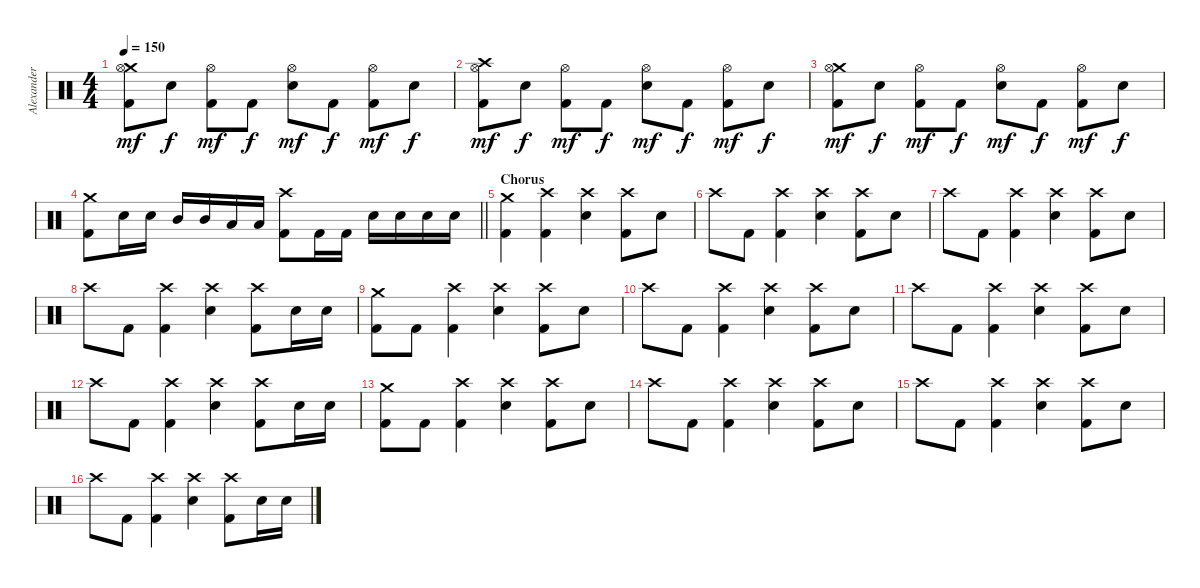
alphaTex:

\track ("Alexander Sveningsson" "Alexander ") {instrument percussion}
\staff {score}
\articulation defaults
\ts (4 4)
\tempo 150
\clef neutral
\ks c
("Crash medium (hit)" "Hi-Hat (open)" "Kick (hit) 2").8{dy mf} "Electric Snare (hit)".8{dy f} ("Hi-Hat (open)" "Kick (hit) 2").8{dy mf} "Kick (hit) 2".8{dy f} ("Hi-Hat (open)" "Electric Snare (hit)").8{dy mf} "Kick (hit) 2".8{dy f} ("Hi-Hat (open)" "Kick (hit) 2").8{dy mf} "Electric Snare (hit)".8{dy f} |
("Crash high (hit)" "Hi-Hat (open)" "Kick (hit) 2").8{dy mf} "Electric Snare (hit)".8{dy f} ("Hi-Hat (open)" "Kick (hit) 2").8{dy mf} "Kick (hit) 2".8{dy f} ("Hi-Hat (open)" "Electric Snare (hit)").8{dy mf} "Kick (hit) 2".8{dy f} ("Hi-Hat (open)" "Kick (hit) 2").8{dy mf} "Electric Snare (hit)".8{dy f} |
("Crash medium (hit)" "Hi-Hat (open)" "Kick (hit) 2").8{dy mf} "Electric Snare (hit)".8{dy f} ("Hi-Hat (open)" "Kick (hit) 2").8{dy mf} "Kick (hit) 2".8{dy f} ("Hi-Hat (open)" "Electric Snare (hit)").8{dy mf} "Kick (hit) 2".8{dy f} ("Hi-Hat (open)" "Kick (hit) 2").8{dy mf} "Electric Snare (hit)".8{dy f} |
\barLineRight lightlight
("Crash medium (hit)" "Kick (hit) 2").8 "Electric Snare (hit)".16 "Electric Snare (hit)".16 "Mid Tom (hit)".16 "Mid Tom (hit)".16 "Low Tom (hit)".16 "Low Tom (hit)".16 ("Crash high (hit)" "Kick (hit) 2").8 "Kick (hit) 2".16 "Kick (hit) 2".16 "Electric Snare (hit)".16 "Electric Snare (hit)".16 "Electric Snare (hit)".16 "Electric Snare (hit)".16 |
\section ("" "Chorus")
("Crash medium (hit)" "Kick (hit) 2").4 ("Crash high (hit)" "Kick (hit) 2").4 ("Crash high (hit)" "Electric Snare (hit)").4 ("Crash high (hit)" "Kick (hit) 2").8 "Electric Snare (hit)".8 |
"Crash high (hit)".8 "Kick (hit) 2".8 ("Crash high (hit)" "Kick (hit) 2").4 ("Crash high (hit)" "Electric Snare (hit)").4 ("Crash high (hit)" "Kick (hit) 2").8 "Electric Snare (hit)".8 |
"Crash high (hit)".8 "Kick (hit) 2".8 ("Crash high (hit)" "Kick (hit) 2").4 ("Crash high (hit)" "Electric Snare (hit)").4 ("Crash high (hit)" "Kick (hit) 2").8 "Electric Snare (hit)".8 |
"Crash high (hit)".8 "Kick (hit) 2".8 ("Crash high (hit)" "Kick (hit) 2").4 ("Crash high (hit)" "Electric Snare (hit)").4 ("Crash high (hit)" "Kick (hit) 2").8 "Electric Snare (hit)".16 "Electric Snare (hit)".16 |
("Crash medium (hit)" "Kick (hit) 2").8 "Kick (hit) 2".8 ("Crash high (hit)" "Kick (hit) 2").4 ("Crash high (hit)" "Electric Snare (hit)").4 ("Crash high (hit)" "Kick (hit) 2").8 "Electric Snare (hit)".8 |
"Crash high (hit)".8 "Kick (hit) 2".8 ("Crash high (hit)" "Kick (hit) 2").4 ("Crash high (hit)" "Electric Snare (hit)").4 ("Crash high (hit)" "Kick (hit) 2").8 "Electric Snare (hit)".8 |
"Crash high (hit)".8 "Kick (hit) 2".8 ("Crash high (hit)" "Kick (hit) 2").4 ("Crash high (hit)" "Electric Snare (hit)").4 ("Crash high (hit)" "Kick (hit) 2").8 "Electric Snare (hit)".8 |
"Crash high (hit)".8 "Kick (hit) 2".8 ("Crash high (hit)" "Kick (hit) 2").4 ("Crash high (hit)" "Electric Snare (hit)").4 ("Crash high (hit)" "Kick (hit) 2").8 "Electric Snare (hit)".16 "Electric Snare (hit)".16 |
("Crash medium (hit)" "Kick (hit) 2").8 "Kick (hit) 2".8 ("Crash high (hit)" "Kick (hit) 2").4 ("Crash high (hit)" "Electric Snare (hit)").4 ("Crash high (hit)" "Kick (hit) 2").8 "Electric Snare (hit)".8 |
"Crash high (hit)".8 "Kick (hit) 2".8 ("Crash high (hit)" "Kick (hit) 2").4 ("Crash high (hit)" "Electric Snare (hit)").4 ("Crash high (hit)" "Kick (hit) 2").8 "Electric Snare (hit)".8 |
"Crash high (hit)".8 "Kick (hit) 2".8 ("Crash high (hit)" "Kick (hit) 2").4 ("Crash high (hit)" "Electric Snare (hit)").4 ("Crash high (hit)" "Kick (hit) 2").8 "Electric Snare (hit)".8 |
"Crash high (hit)".8 "Kick (hit) 2".8 ("Crash high (hit)" "Kick (hit) 2").4 ("Crash high (hit)" "Electric Snare (hit)").4 ("Crash high (hit)" "Kick (hit) 2").8 "Electric Snare (hit)".16 "Electric Snare (hit)".16
